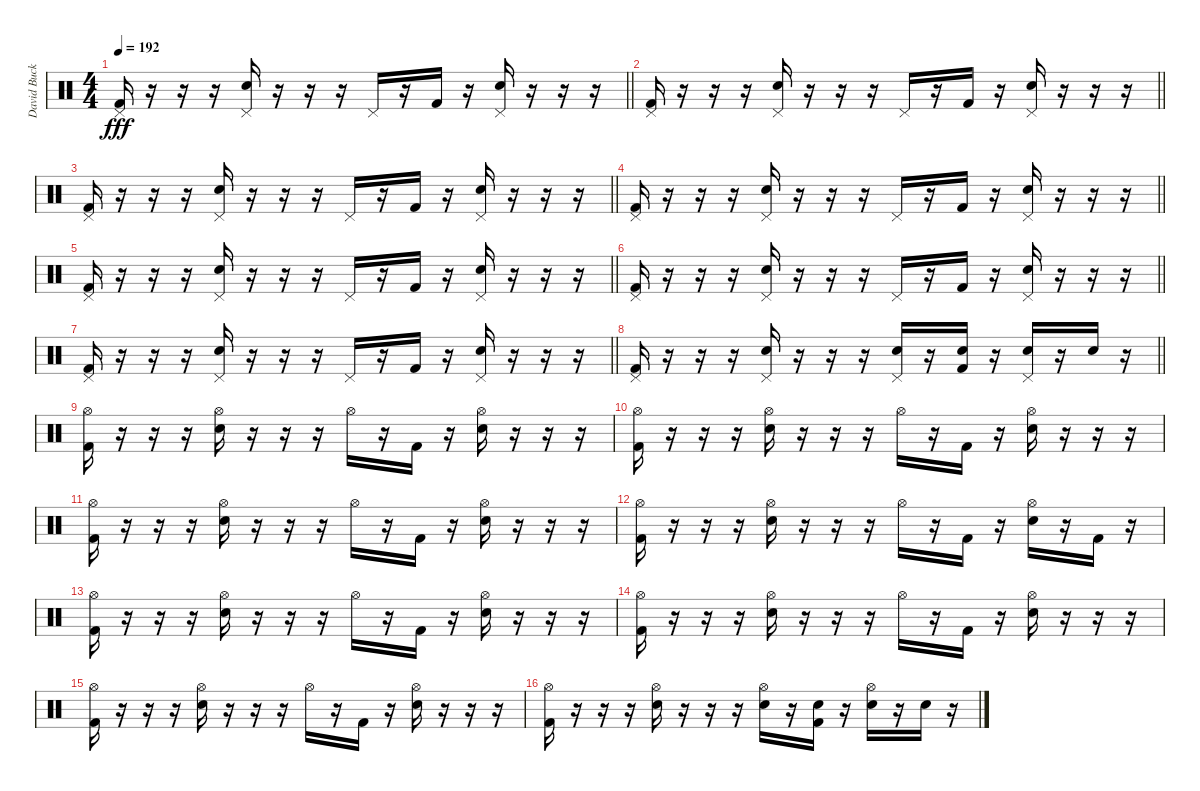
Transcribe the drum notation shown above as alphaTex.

\track ("David Buckner" "David Buck") {instrument percussion}
\staff {score}
\articulation defaults
\ts (4 4)
\tempo 192
\clef neutral
\barLineRight lightlight
\ks c
("Pedal Hi-Hat (hit)" "Kick (hit) 2").16{dy fff} r.16 r.16 r.16 ("Pedal Hi-Hat (hit)" "Electric Snare (hit)").16 r.16 r.16 r.16 "Pedal Hi-Hat (hit)".16 r.16 "Kick (hit) 2".16 r.16 ("Pedal Hi-Hat (hit)" "Electric Snare (hit)").16 r.16 r.16 r.16 |
\barLineRight lightlight
("Pedal Hi-Hat (hit)" "Kick (hit) 2").16 r.16 r.16 r.16 ("Pedal Hi-Hat (hit)" "Electric Snare (hit)").16 r.16 r.16 r.16 "Pedal Hi-Hat (hit)".16 r.16 "Kick (hit) 2".16 r.16 ("Pedal Hi-Hat (hit)" "Electric Snare (hit)").16 r.16 r.16 r.16 |
\barLineRight lightlight
("Pedal Hi-Hat (hit)" "Kick (hit) 2").16 r.16 r.16 r.16 ("Pedal Hi-Hat (hit)" "Electric Snare (hit)").16 r.16 r.16 r.16 "Pedal Hi-Hat (hit)".16 r.16 "Kick (hit) 2".16 r.16 ("Pedal Hi-Hat (hit)" "Electric Snare (hit)").16 r.16 r.16 r.16 |
\barLineRight lightlight
("Pedal Hi-Hat (hit)" "Kick (hit) 2").16 r.16 r.16 r.16 ("Pedal Hi-Hat (hit)" "Electric Snare (hit)").16 r.16 r.16 r.16 "Pedal Hi-Hat (hit)".16 r.16 "Kick (hit) 2".16 r.16 ("Pedal Hi-Hat (hit)" "Electric Snare (hit)").16 r.16 r.16 r.16 |
\barLineRight lightlight
("Pedal Hi-Hat (hit)" "Kick (hit) 2").16 r.16 r.16 r.16 ("Pedal Hi-Hat (hit)" "Electric Snare (hit)").16 r.16 r.16 r.16 "Pedal Hi-Hat (hit)".16 r.16 "Kick (hit) 2".16 r.16 ("Pedal Hi-Hat (hit)" "Electric Snare (hit)").16 r.16 r.16 r.16 |
\barLineRight lightlight
("Pedal Hi-Hat (hit)" "Kick (hit) 2").16 r.16 r.16 r.16 ("Pedal Hi-Hat (hit)" "Electric Snare (hit)").16 r.16 r.16 r.16 "Pedal Hi-Hat (hit)".16 r.16 "Kick (hit) 2".16 r.16 ("Pedal Hi-Hat (hit)" "Electric Snare (hit)").16 r.16 r.16 r.16 |
\barLineRight lightlight
("Pedal Hi-Hat (hit)" "Kick (hit) 2").16 r.16 r.16 r.16 ("Pedal Hi-Hat (hit)" "Electric Snare (hit)").16 r.16 r.16 r.16 "Pedal Hi-Hat (hit)".16 r.16 "Kick (hit) 2".16 r.16 ("Pedal Hi-Hat (hit)" "Electric Snare (hit)").16 r.16 r.16 r.16 |
\barLineRight lightlight
("Pedal Hi-Hat (hit)" "Kick (hit) 2").16 r.16 r.16 r.16 ("Pedal Hi-Hat (hit)" "Electric Snare (hit)").16 r.16 r.16 r.16 ("Pedal Hi-Hat (hit)" "Electric Snare (hit)").16 r.16 ("Electric Snare (hit)" "Kick (hit) 2").16 r.16 ("Pedal Hi-Hat (hit)" "Electric Snare (hit)").16 r.16 "Electric Snare (hit)".16 r.16 |
("Hi-Hat (open)" "Kick (hit) 2").16 r.16 r.16 r.16 ("Hi-Hat (open)" "Electric Snare (hit)").16 r.16 r.16 r.16 "Hi-Hat (open)".16 r.16 "Kick (hit) 2".16 r.16 ("Hi-Hat (open)" "Electric Snare (hit)").16 r.16 r.16 r.16 |
("Hi-Hat (open)" "Kick (hit) 2").16 r.16 r.16 r.16 ("Hi-Hat (open)" "Electric Snare (hit)").16 r.16 r.16 r.16 "Hi-Hat (open)".16 r.16 "Kick (hit) 2".16 r.16 ("Hi-Hat (open)" "Electric Snare (hit)").16 r.16 r.16 r.16 |
("Hi-Hat (open)" "Kick (hit) 2").16 r.16 r.16 r.16 ("Hi-Hat (open)" "Electric Snare (hit)").16 r.16 r.16 r.16 "Hi-Hat (open)".16 r.16 "Kick (hit) 2".16 r.16 ("Hi-Hat (open)" "Electric Snare (hit)").16 r.16 r.16 r.16 |
("Hi-Hat (open)" "Kick (hit) 2").16 r.16 r.16 r.16 ("Hi-Hat (open)" "Electric Snare (hit)").16 r.16 r.16 r.16 "Hi-Hat (open)".16 r.16 "Kick (hit) 2".16 r.16 ("Hi-Hat (open)" "Electric Snare (hit)").16 r.16 "Kick (hit) 2".16 r.16 |
("Hi-Hat (open)" "Kick (hit) 2").16 r.16 r.16 r.16 ("Hi-Hat (open)" "Electric Snare (hit)").16 r.16 r.16 r.16 "Hi-Hat (open)".16 r.16 "Kick (hit) 2".16 r.16 ("Hi-Hat (open)" "Electric Snare (hit)").16 r.16 r.16 r.16 |
("Hi-Hat (open)" "Kick (hit) 2").16 r.16 r.16 r.16 ("Hi-Hat (open)" "Electric Snare (hit)").16 r.16 r.16 r.16 "Hi-Hat (open)".16 r.16 "Kick (hit) 2".16 r.16 ("Hi-Hat (open)" "Electric Snare (hit)").16 r.16 r.16 r.16 |
("Hi-Hat (open)" "Kick (hit) 2").16 r.16 r.16 r.16 ("Hi-Hat (open)" "Electric Snare (hit)").16 r.16 r.16 r.16 "Hi-Hat (open)".16 r.16 "Kick (hit) 2".16 r.16 ("Hi-Hat (open)" "Electric Snare (hit)").16 r.16 r.16 r.16 |
("Hi-Hat (open)" "Kick (hit) 2").16 r.16 r.16 r.16 ("Hi-Hat (open)" "Electric Snare (hit)").16 r.16 r.16 r.16 ("Hi-Hat (open)" "Electric Snare (hit)").16 r.16 ("Electric Snare (hit)" "Kick (hit) 2").16 r.16 ("Hi-Hat (open)" "Electric Snare (hit)").16 r.16 "Electric Snare (hit)".16 r.16
